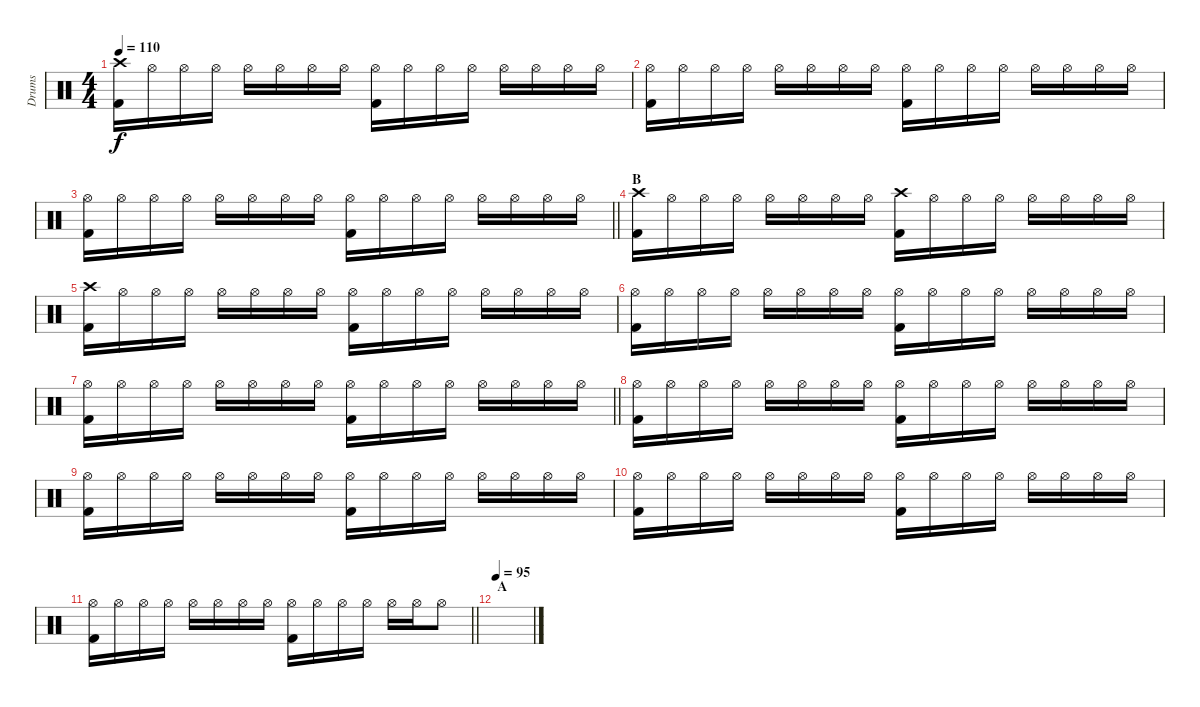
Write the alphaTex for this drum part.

\track ("Drums" "Drums") {instrument percussion}
\staff {score}
\articulation defaults
\ts (4 4)
\tempo 110
\clef neutral
\ks c
("Crash high (hit)" "Kick (hit) 2").16{dy f} "Hi-Hat (open)".16 "Hi-Hat (open)".16 "Hi-Hat (open)".16 "Hi-Hat (open)".16 "Hi-Hat (open)".16 "Hi-Hat (open)".16 "Hi-Hat (open)".16 ("Hi-Hat (open)" "Kick (hit) 2").16 "Hi-Hat (open)".16 "Hi-Hat (open)".16 "Hi-Hat (open)".16 "Hi-Hat (open)".16 "Hi-Hat (open)".16 "Hi-Hat (open)".16 "Hi-Hat (open)".16 |
("Hi-Hat (open)" "Kick (hit) 2").16 "Hi-Hat (open)".16 "Hi-Hat (open)".16 "Hi-Hat (open)".16 "Hi-Hat (open)".16 "Hi-Hat (open)".16 "Hi-Hat (open)".16 "Hi-Hat (open)".16 ("Hi-Hat (open)" "Kick (hit) 2").16 "Hi-Hat (open)".16 "Hi-Hat (open)".16 "Hi-Hat (open)".16 "Hi-Hat (open)".16 "Hi-Hat (open)".16 "Hi-Hat (open)".16 "Hi-Hat (open)".16 |
\barLineRight lightlight
("Hi-Hat (open)" "Kick (hit) 2").16 "Hi-Hat (open)".16 "Hi-Hat (open)".16 "Hi-Hat (open)".16 "Hi-Hat (open)".16 "Hi-Hat (open)".16 "Hi-Hat (open)".16 "Hi-Hat (open)".16 ("Hi-Hat (open)" "Kick (hit) 2").16 "Hi-Hat (open)".16 "Hi-Hat (open)".16 "Hi-Hat (open)".16 "Hi-Hat (open)".16 "Hi-Hat (open)".16 "Hi-Hat (open)".16 "Hi-Hat (open)".16 |
\section ("" "B")
("Crash high (hit)" "Kick (hit) 2").16 "Hi-Hat (open)".16 "Hi-Hat (open)".16 "Hi-Hat (open)".16 "Hi-Hat (open)".16 "Hi-Hat (open)".16 "Hi-Hat (open)".16 "Hi-Hat (open)".16 ("Crash high (hit)" "Kick (hit) 2").16 "Hi-Hat (open)".16 "Hi-Hat (open)".16 "Hi-Hat (open)".16 "Hi-Hat (open)".16 "Hi-Hat (open)".16 "Hi-Hat (open)".16 "Hi-Hat (open)".16 |
("Crash high (hit)" "Kick (hit) 2").16 "Hi-Hat (open)".16 "Hi-Hat (open)".16 "Hi-Hat (open)".16 "Hi-Hat (open)".16 "Hi-Hat (open)".16 "Hi-Hat (open)".16 "Hi-Hat (open)".16 ("Hi-Hat (open)" "Kick (hit) 2").16 "Hi-Hat (open)".16 "Hi-Hat (open)".16 "Hi-Hat (open)".16 "Hi-Hat (open)".16 "Hi-Hat (open)".16 "Hi-Hat (open)".16 "Hi-Hat (open)".16 |
("Hi-Hat (open)" "Kick (hit) 2").16 "Hi-Hat (open)".16 "Hi-Hat (open)".16 "Hi-Hat (open)".16 "Hi-Hat (open)".16 "Hi-Hat (open)".16 "Hi-Hat (open)".16 "Hi-Hat (open)".16 ("Hi-Hat (open)" "Kick (hit) 2").16 "Hi-Hat (open)".16 "Hi-Hat (open)".16 "Hi-Hat (open)".16 "Hi-Hat (open)".16 "Hi-Hat (open)".16 "Hi-Hat (open)".16 "Hi-Hat (open)".16 |
\barLineRight lightlight
("Hi-Hat (open)" "Kick (hit) 2").16 "Hi-Hat (open)".16 "Hi-Hat (open)".16 "Hi-Hat (open)".16 "Hi-Hat (open)".16 "Hi-Hat (open)".16 "Hi-Hat (open)".16 "Hi-Hat (open)".16 ("Hi-Hat (open)" "Kick (hit) 2").16 "Hi-Hat (open)".16 "Hi-Hat (open)".16 "Hi-Hat (open)".16 "Hi-Hat (open)".16 "Hi-Hat (open)".16 "Hi-Hat (open)".16 "Hi-Hat (open)".16 |
("Hi-Hat (open)" "Kick (hit) 2").16 "Hi-Hat (open)".16 "Hi-Hat (open)".16 "Hi-Hat (open)".16 "Hi-Hat (open)".16 "Hi-Hat (open)".16 "Hi-Hat (open)".16 "Hi-Hat (open)".16 ("Hi-Hat (open)" "Kick (hit) 2").16 "Hi-Hat (open)".16 "Hi-Hat (open)".16 "Hi-Hat (open)".16 "Hi-Hat (open)".16 "Hi-Hat (open)".16 "Hi-Hat (open)".16 "Hi-Hat (open)".16 |
("Hi-Hat (open)" "Kick (hit) 2").16 "Hi-Hat (open)".16 "Hi-Hat (open)".16 "Hi-Hat (open)".16 "Hi-Hat (open)".16 "Hi-Hat (open)".16 "Hi-Hat (open)".16 "Hi-Hat (open)".16 ("Hi-Hat (open)" "Kick (hit) 2").16 "Hi-Hat (open)".16 "Hi-Hat (open)".16 "Hi-Hat (open)".16 "Hi-Hat (open)".16 "Hi-Hat (open)".16 "Hi-Hat (open)".16 "Hi-Hat (open)".16 |
("Hi-Hat (open)" "Kick (hit) 2").16 "Hi-Hat (open)".16 "Hi-Hat (open)".16 "Hi-Hat (open)".16 "Hi-Hat (open)".16 "Hi-Hat (open)".16 "Hi-Hat (open)".16 "Hi-Hat (open)".16 ("Hi-Hat (open)" "Kick (hit) 2").16 "Hi-Hat (open)".16 "Hi-Hat (open)".16 "Hi-Hat (open)".16 "Hi-Hat (open)".16 "Hi-Hat (open)".16 "Hi-Hat (open)".16 "Hi-Hat (open)".16 |
\barLineRight lightlight
("Hi-Hat (open)" "Kick (hit) 2").16 "Hi-Hat (open)".16 "Hi-Hat (open)".16 "Hi-Hat (open)".16 "Hi-Hat (open)".16 "Hi-Hat (open)".16 "Hi-Hat (open)".16 "Hi-Hat (open)".16 ("Hi-Hat (open)" "Kick (hit) 2").16 "Hi-Hat (open)".16 "Hi-Hat (open)".16 "Hi-Hat (open)".16 "Hi-Hat (open)".16 "Hi-Hat (open)".16 "Hi-Hat (open)".8 |
\section ("" "A")
\tempo 95
